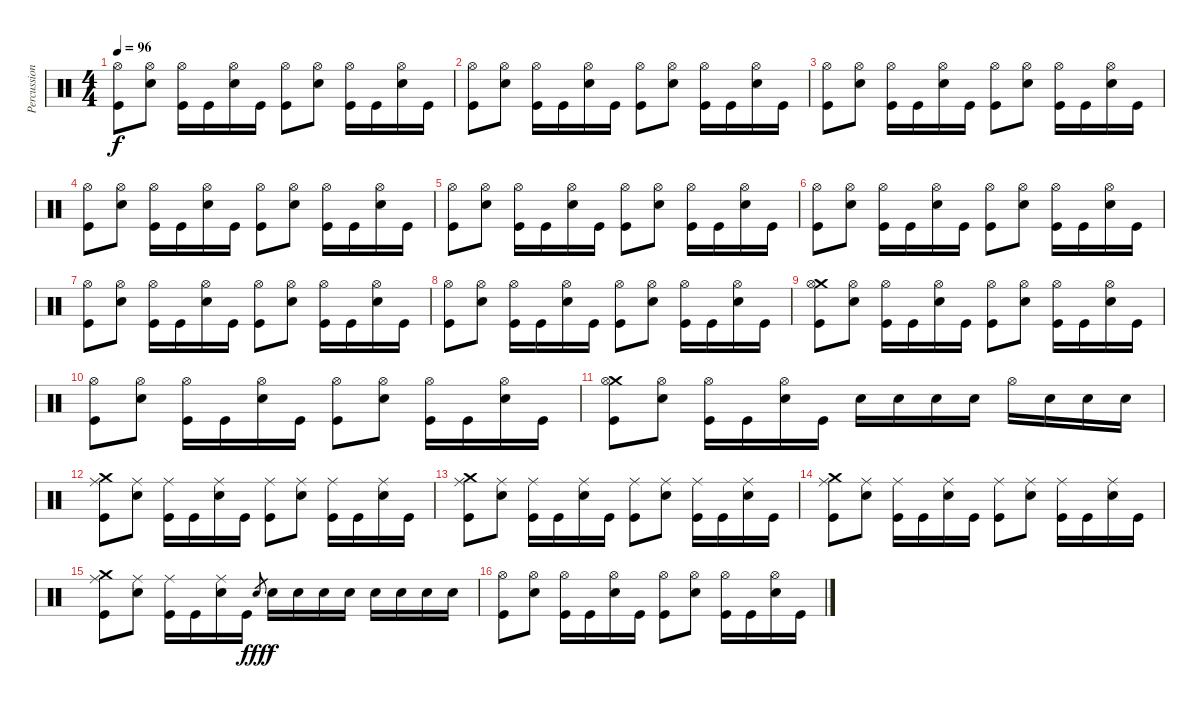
\track ("Percussion" "Percussion") {instrument percussion}
\staff {score}
\articulation defaults
\ts (4 4)
\tempo 96
\clef neutral
\ks c
("Hi-Hat (open)" "Kick (hit)").8{dy f} ("Hi-Hat (open)" "Electric Snare (hit)").8 ("Hi-Hat (open)" "Kick (hit)").16 "Kick (hit)".16 ("Hi-Hat (open)" "Electric Snare (hit)").16 "Kick (hit)".16 ("Hi-Hat (open)" "Kick (hit)").8 ("Hi-Hat (open)" "Electric Snare (hit)").8 ("Hi-Hat (open)" "Kick (hit)").16 "Kick (hit)".16 ("Hi-Hat (open)" "Electric Snare (hit)").16 "Kick (hit)".16 |
("Hi-Hat (open)" "Kick (hit)").8 ("Hi-Hat (open)" "Electric Snare (hit)").8 ("Hi-Hat (open)" "Kick (hit)").16 "Kick (hit)".16 ("Hi-Hat (open)" "Electric Snare (hit)").16 "Kick (hit)".16 ("Hi-Hat (open)" "Kick (hit)").8 ("Hi-Hat (open)" "Electric Snare (hit)").8 ("Hi-Hat (open)" "Kick (hit)").16 "Kick (hit)".16 ("Hi-Hat (open)" "Electric Snare (hit)").16 "Kick (hit)".16 |
("Hi-Hat (open)" "Kick (hit)").8 ("Hi-Hat (open)" "Electric Snare (hit)").8 ("Hi-Hat (open)" "Kick (hit)").16 "Kick (hit)".16 ("Hi-Hat (open)" "Electric Snare (hit)").16 "Kick (hit)".16 ("Hi-Hat (open)" "Kick (hit)").8 ("Hi-Hat (open)" "Electric Snare (hit)").8 ("Hi-Hat (open)" "Kick (hit)").16 "Kick (hit)".16 ("Hi-Hat (open)" "Electric Snare (hit)").16 "Kick (hit)".16 |
("Hi-Hat (open)" "Kick (hit)").8 ("Hi-Hat (open)" "Electric Snare (hit)").8 ("Hi-Hat (open)" "Kick (hit)").16 "Kick (hit)".16 ("Hi-Hat (open)" "Electric Snare (hit)").16 "Kick (hit)".16 ("Hi-Hat (open)" "Kick (hit)").8 ("Hi-Hat (open)" "Electric Snare (hit)").8 ("Hi-Hat (open)" "Kick (hit)").16 "Kick (hit)".16 ("Hi-Hat (open)" "Electric Snare (hit)").16 "Kick (hit)".16 |
("Hi-Hat (open)" "Kick (hit)").8 ("Hi-Hat (open)" "Electric Snare (hit)").8 ("Hi-Hat (open)" "Kick (hit)").16 "Kick (hit)".16 ("Hi-Hat (open)" "Electric Snare (hit)").16 "Kick (hit)".16 ("Hi-Hat (open)" "Kick (hit)").8 ("Hi-Hat (open)" "Electric Snare (hit)").8 ("Hi-Hat (open)" "Kick (hit)").16 "Kick (hit)".16 ("Hi-Hat (open)" "Electric Snare (hit)").16 "Kick (hit)".16 |
("Hi-Hat (open)" "Kick (hit)").8 ("Hi-Hat (open)" "Electric Snare (hit)").8 ("Hi-Hat (open)" "Kick (hit)").16 "Kick (hit)".16 ("Hi-Hat (open)" "Electric Snare (hit)").16 "Kick (hit)".16 ("Hi-Hat (open)" "Kick (hit)").8 ("Hi-Hat (open)" "Electric Snare (hit)").8 ("Hi-Hat (open)" "Kick (hit)").16 "Kick (hit)".16 ("Hi-Hat (open)" "Electric Snare (hit)").16 "Kick (hit)".16 |
("Hi-Hat (open)" "Kick (hit)").8 ("Hi-Hat (open)" "Electric Snare (hit)").8 ("Hi-Hat (open)" "Kick (hit)").16 "Kick (hit)".16 ("Hi-Hat (open)" "Electric Snare (hit)").16 "Kick (hit)".16 ("Hi-Hat (open)" "Kick (hit)").8 ("Hi-Hat (open)" "Electric Snare (hit)").8 ("Hi-Hat (open)" "Kick (hit)").16 "Kick (hit)".16 ("Hi-Hat (open)" "Electric Snare (hit)").16 "Kick (hit)".16 |
("Hi-Hat (open)" "Kick (hit)").8 ("Hi-Hat (open)" "Electric Snare (hit)").8 ("Hi-Hat (open)" "Kick (hit)").16 "Kick (hit)".16 ("Hi-Hat (open)" "Electric Snare (hit)").16 "Kick (hit)".16 ("Hi-Hat (open)" "Kick (hit)").8 ("Hi-Hat (open)" "Electric Snare (hit)").8 ("Hi-Hat (open)" "Kick (hit)").16 "Kick (hit)".16 ("Hi-Hat (open)" "Electric Snare (hit)").16 "Kick (hit)".16 |
("Crash medium (hit)" "Hi-Hat (open)" "Kick (hit)").8 ("Hi-Hat (open)" "Electric Snare (hit)").8 ("Hi-Hat (open)" "Kick (hit)").16 "Kick (hit)".16 ("Hi-Hat (open)" "Electric Snare (hit)").16 "Kick (hit)".16 ("Hi-Hat (open)" "Kick (hit)").8 ("Hi-Hat (open)" "Electric Snare (hit)").8 ("Hi-Hat (open)" "Kick (hit)").16 "Kick (hit)".16 ("Hi-Hat (open)" "Electric Snare (hit)").16 "Kick (hit)".16 |
("Hi-Hat (open)" "Kick (hit)").8 ("Hi-Hat (open)" "Electric Snare (hit)").8 ("Hi-Hat (open)" "Kick (hit)").16 "Kick (hit)".16 ("Hi-Hat (open)" "Electric Snare (hit)").16 "Kick (hit)".16 ("Hi-Hat (open)" "Kick (hit)").8 ("Hi-Hat (open)" "Electric Snare (hit)").8 ("Hi-Hat (open)" "Kick (hit)").16 "Kick (hit)".16 ("Hi-Hat (open)" "Electric Snare (hit)").16 "Kick (hit)".16 |
("Crash medium (hit)" "Hi-Hat (open)" "Kick (hit)").8 ("Hi-Hat (open)" "Electric Snare (hit)").8 ("Hi-Hat (open)" "Kick (hit)").16 "Kick (hit)".16 ("Hi-Hat (open)" "Electric Snare (hit)").16 "Kick (hit)".16 "Electric Snare (hit)".16 "Electric Snare (hit)".16 "Electric Snare (hit)".16 "Electric Snare (hit)".16 "Hi-Hat (open)".16 "Electric Snare (hit)".16 "Electric Snare (hit)".16 "Electric Snare (hit)".16 |
("Crash medium (hit)" "Ride (middle)" "Kick (hit)").8 ("Ride (middle)" "Electric Snare (hit)").8 ("Ride (middle)" "Kick (hit)").16 "Kick (hit)".16 ("Ride (middle)" "Electric Snare (hit)").16 "Kick (hit)".16 ("Ride (middle)" "Kick (hit)").8 ("Ride (middle)" "Electric Snare (hit)").8 ("Ride (middle)" "Kick (hit)").16 "Kick (hit)".16 ("Ride (middle)" "Electric Snare (hit)").16 "Kick (hit)".16 |
("Crash medium (hit)" "Ride (middle)" "Kick (hit)").8 ("Ride (middle)" "Electric Snare (hit)").8 ("Ride (middle)" "Kick (hit)").16 "Kick (hit)".16 ("Ride (middle)" "Electric Snare (hit)").16 "Kick (hit)".16 ("Ride (middle)" "Kick (hit)").8 ("Ride (middle)" "Electric Snare (hit)").8 ("Ride (middle)" "Kick (hit)").16 "Kick (hit)".16 ("Ride (middle)" "Electric Snare (hit)").16 "Kick (hit)".16 |
("Crash medium (hit)" "Ride (middle)" "Kick (hit)").8 ("Ride (middle)" "Electric Snare (hit)").8 ("Ride (middle)" "Kick (hit)").16 "Kick (hit)".16 ("Ride (middle)" "Electric Snare (hit)").16 "Kick (hit)".16 ("Ride (middle)" "Kick (hit)").8 ("Ride (middle)" "Electric Snare (hit)").8 ("Ride (middle)" "Kick (hit)").16 "Kick (hit)".16 ("Ride (middle)" "Electric Snare (hit)").16 "Kick (hit)".16 |
("Crash medium (hit)" "Ride (middle)" "Kick (hit)").8 ("Ride (middle)" "Electric Snare (hit)").8 ("Ride (middle)" "Kick (hit)").16 "Kick (hit)".16 ("Ride (middle)" "Electric Snare (hit)").16 "Kick (hit)".16 "Electric Snare (hit)".8{gr dy fff} "Electric Snare (hit)".16{dy f} "Electric Snare (hit)".16 "Electric Snare (hit)".16 "Electric Snare (hit)".16 "Electric Snare (hit)".16 "Electric Snare (hit)".16 "Electric Snare (hit)".16 "Electric Snare (hit)".16 |
("Hi-Hat (open)" "Kick (hit)").8 ("Hi-Hat (open)" "Electric Snare (hit)").8 ("Hi-Hat (open)" "Kick (hit)").16 "Kick (hit)".16 ("Hi-Hat (open)" "Electric Snare (hit)").16 "Kick (hit)".16 ("Hi-Hat (open)" "Kick (hit)").8 ("Hi-Hat (open)" "Electric Snare (hit)").8 ("Hi-Hat (open)" "Kick (hit)").16 "Kick (hit)".16 ("Hi-Hat (open)" "Electric Snare (hit)").16 "Kick (hit)".16
